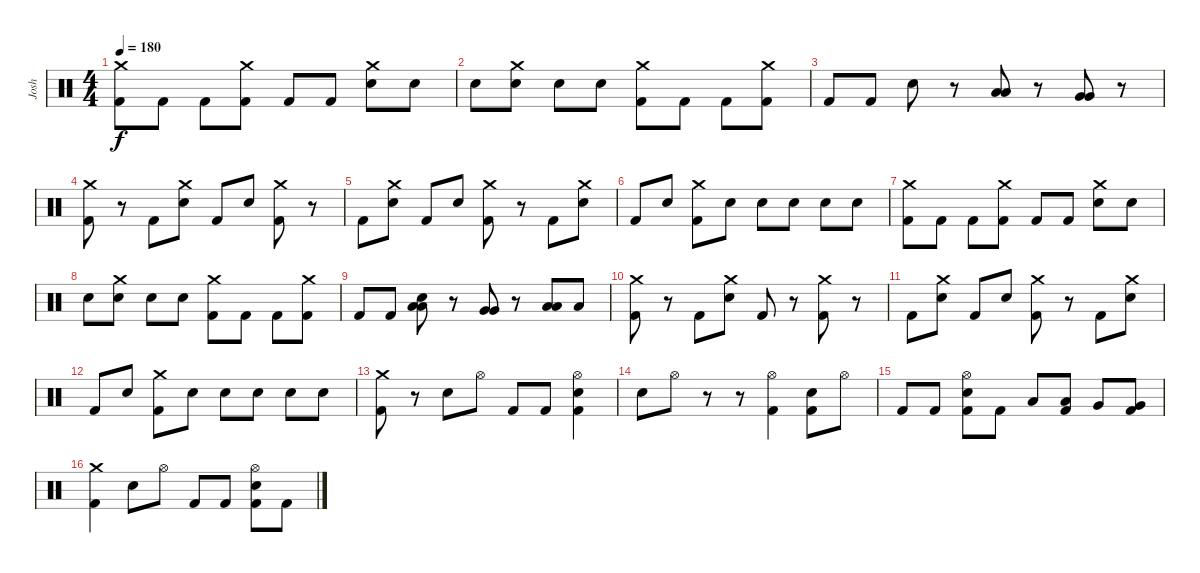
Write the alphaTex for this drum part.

\track ("Josh" "Josh") {instrument percussion}
\staff {score}
\articulation defaults
\ts (4 4)
\tempo 180
\clef neutral
\ks c
("Crash medium (hit)" "Kick (hit) 2").8{dy f} "Kick (hit) 2".8 "Kick (hit) 2".8 ("Crash medium (hit)" "Kick (hit) 2").8 "Kick (hit) 2".8 "Kick (hit) 2".8 ("Crash medium (hit)" "Electric Snare (hit)").8 "Electric Snare (hit)".8 |
"Electric Snare (hit)".8 ("Crash medium (hit)" "Electric Snare (hit)").8 "Electric Snare (hit)".8 "Electric Snare (hit)".8 ("Crash medium (hit)" "Kick (hit) 2").8 "Kick (hit) 2".8 "Kick (hit) 2".8 ("Crash medium (hit)" "Kick (hit) 2").8 |
"Kick (hit) 2".8 "Kick (hit) 2".8 "Electric Snare (hit)".8 r.8 ("Low Tom (hit)" "Low Tom (hit)").8 r.8 ("Very Low Tom (hit)" "Very Low Tom (hit)").8 r.8 |
("Crash medium (hit)" "Kick (hit) 2").8 r.8 "Kick (hit) 2".8 ("Crash medium (hit)" "Electric Snare (hit)").8 "Kick (hit) 2".8 "Electric Snare (hit)".8 ("Crash medium (hit)" "Kick (hit) 2").8 r.8 |
"Kick (hit) 2".8 ("Crash medium (hit)" "Electric Snare (hit)").8 "Kick (hit) 2".8 "Electric Snare (hit)".8 ("Crash medium (hit)" "Kick (hit) 2").8 r.8 "Kick (hit) 2".8 ("Crash medium (hit)" "Electric Snare (hit)").8 |
"Kick (hit) 2".8 "Electric Snare (hit)".8 ("Crash medium (hit)" "Kick (hit) 2").8 "Electric Snare (hit)".8 "Electric Snare (hit)".8 "Electric Snare (hit)".8 "Electric Snare (hit)".8 "Electric Snare (hit)".8 |
("Crash medium (hit)" "Kick (hit) 2").8 "Kick (hit) 2".8 "Kick (hit) 2".8 ("Crash medium (hit)" "Kick (hit) 2").8 "Kick (hit) 2".8 "Kick (hit) 2".8 ("Crash medium (hit)" "Electric Snare (hit)").8 "Electric Snare (hit)".8 |
"Electric Snare (hit)".8 ("Crash medium (hit)" "Electric Snare (hit)").8 "Electric Snare (hit)".8 "Electric Snare (hit)".8 ("Crash medium (hit)" "Kick (hit) 2").8 "Kick (hit) 2".8 "Kick (hit) 2".8 ("Crash medium (hit)" "Kick (hit) 2").8 |
"Kick (hit) 2".8 "Kick (hit) 2".8 ("Electric Snare (hit)" "Low Tom (hit)" "Low Tom (hit)").8 r.8 ("Very Low Tom (hit)" "Very Low Tom (hit)").8 r.8 ("Low Floor Tom (hit)" "Low Floor Tom (hit)").8 "Low Floor Tom (hit)".8 |
("Crash medium (hit)" "Kick (hit) 2").8 r.8 "Kick (hit) 2".8 ("Crash medium (hit)" "Electric Snare (hit)").8 "Kick (hit) 2".8 r.8 ("Crash medium (hit)" "Kick (hit) 2").8 r.8 |
"Kick (hit) 2".8 ("Crash medium (hit)" "Electric Snare (hit)").8 "Kick (hit) 2".8 "Electric Snare (hit)".8 ("Crash medium (hit)" "Kick (hit) 2").8 r.8 "Kick (hit) 2".8 ("Crash medium (hit)" "Electric Snare (hit)").8 |
"Kick (hit) 2".8 "Electric Snare (hit)".8 ("Crash medium (hit)" "Kick (hit) 2").8 "Electric Snare (hit)".8 "Electric Snare (hit)".8 "Electric Snare (hit)".8 "Electric Snare (hit)".8 "Electric Snare (hit)".8 |
("Crash medium (hit)" "Kick (hit) 2").8 r.8 "Electric Snare (hit)".8 "Hi-Hat (open)".8 "Kick (hit) 2".8 "Kick (hit) 2".8 ("Hi-Hat (open)" "Electric Snare (hit)" "Kick (hit) 2").4 |
"Electric Snare (hit)".8 "Hi-Hat (open)".8 r.8 r.8 ("Hi-Hat (open)" "Kick (hit) 2").4 ("Electric Snare (hit)" "Kick (hit) 2").8 "Hi-Hat (open)".8 |
"Kick (hit) 2".8 "Kick (hit) 2".8 ("Hi-Hat (open)" "Electric Snare (hit)" "Kick (hit) 2").8 "Kick (hit) 2".8 "Low Tom (hit)".8 ("Low Tom (hit)" "Kick (hit) 2").8 "Very Low Tom (hit)".8 ("Very Low Tom (hit)" "Kick (hit) 2").8 |
("Crash medium (hit)" "Kick (hit) 2").4 "Electric Snare (hit)".8 "Hi-Hat (open)".8 "Kick (hit) 2".8 "Kick (hit) 2".8 ("Hi-Hat (open)" "Electric Snare (hit)" "Kick (hit) 2").8 "Kick (hit) 2".8
